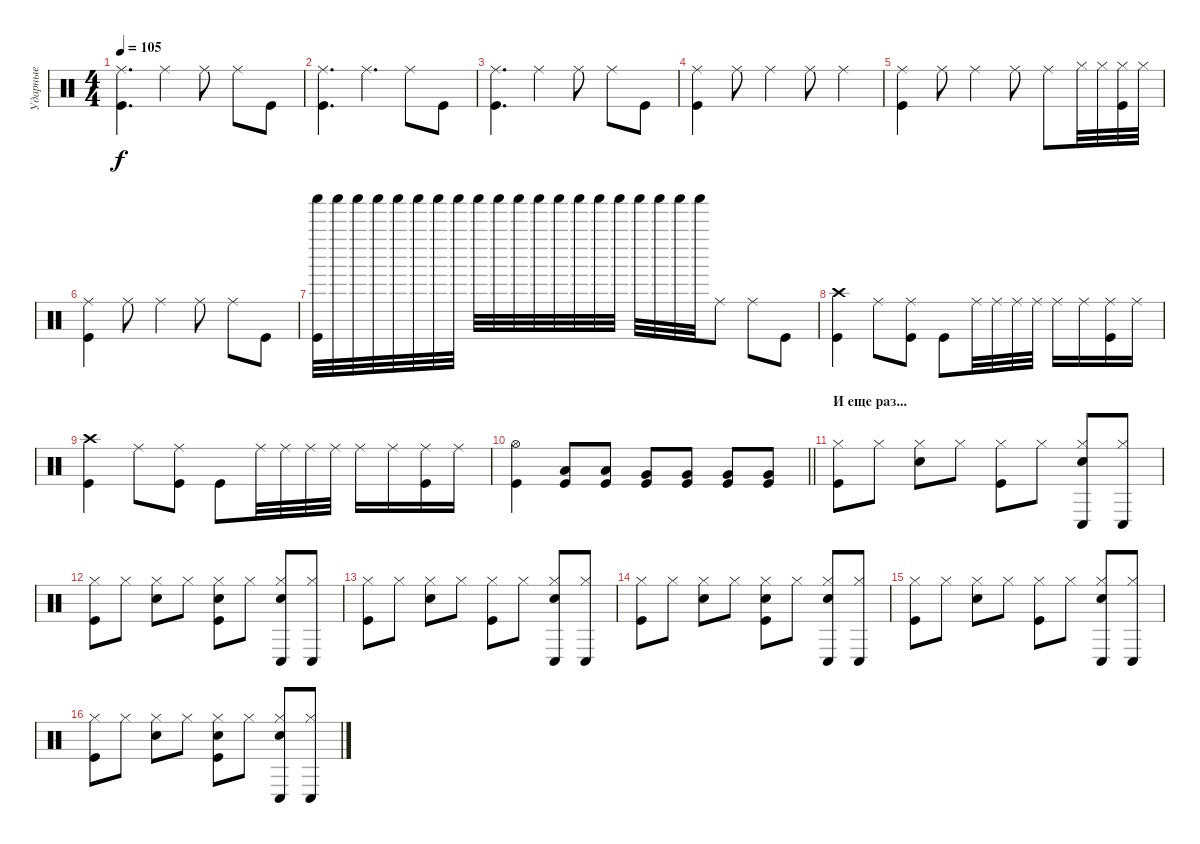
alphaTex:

\track ("Ударные" "Ударные") {instrument percussion}
\staff {score}
\articulation defaults
\ts (4 4)
\tempo 105
\clef neutral
\ks c
("Ride (middle)" "Kick (hit)").4{d dy f} "Ride (middle)".4 "Ride (middle)".8 "Ride (middle)".8 "Kick (hit)".8 |
("Ride (middle)" "Kick (hit)").4{d} "Ride (middle)".4{d} "Ride (middle)".8 "Kick (hit)".8 |
("Ride (middle)" "Kick (hit)").4{d} "Ride (middle)".4 "Ride (middle)".8 "Ride (middle)".8 "Kick (hit)".8 |
("Ride (middle)" "Kick (hit)").4 "Ride (middle)".8 "Ride (middle)".4 "Ride (middle)".8 "Ride (middle)".4 |
("Ride (middle)" "Kick (hit)").4 "Ride (middle)".8 "Ride (middle)".4 "Ride (middle)".8 "Ride (middle)".8 "Hi-Hat (closed)".32 "Hi-Hat (closed)".32 ("Hi-Hat (closed)" "Kick (hit)").32 "Hi-Hat (closed)".32 |
("Ride (middle)" "Kick (hit)").4 "Ride (middle)".8 "Ride (middle)".4 "Ride (middle)".8 "Ride (middle)".8 "Kick (hit)".8 |
("Kick (hit)" "Shaker (hit)").32 "Shaker (hit)".32 "Shaker (hit)".32 "Shaker (hit)".32 "Shaker (hit)".32 "Shaker (hit)".32 "Shaker (hit)".32 "Shaker (hit)".32 "Shaker (hit)".32 "Shaker (hit)".32 "Shaker (hit)".32 "Shaker (hit)".32 "Shaker (hit)".32 "Shaker (hit)".32 "Shaker (hit)".32 "Shaker (hit)".32 "Shaker (hit)".32 "Shaker (hit)".32 "Shaker (hit)".32 "Shaker (hit)".32 "Ride (middle)".8 "Ride (middle)".8 "Kick (hit)".8 |
("Crash high (hit)" "Kick (hit)").4 "Ride (middle)".8 ("Ride (middle)" "Kick (hit)").8 "Kick (hit)".8 "Ride (middle)".32 "Ride (middle)".32 "Ride (middle)".32 "Ride (middle)".32 "Ride (middle)".16 "Ride (middle)".16 ("Ride (middle)" "Kick (hit)").16 "Ride (middle)".16 |
("Crash high (hit)" "Kick (hit)").4 "Ride (middle)".8 ("Ride (middle)" "Kick (hit)").8 "Kick (hit)".8 "Ride (middle)".32 "Ride (middle)".32 "Ride (middle)".32 "Ride (middle)".32 "Ride (middle)".16 "Ride (middle)".16 ("Ride (middle)" "Kick (hit)").16 "Ride (middle)".16 |
\barLineRight lightlight
("Hi-Hat (open)" "Kick (hit)").4 ("Kick (hit)" "Low Tom (hit)").8 ("Kick (hit)" "Low Tom (hit)").8 ("Kick (hit)" "Very Low Tom (hit)").8 ("Kick (hit)" "Very Low Tom (hit)").8 ("Kick (hit)" "Very Low Tom (hit)").8 ("Very Low Tom (hit)" "Kick (hit)").8 |
\section ("" "И еще раз...")
("Kick (hit)" "Hi-Hat (closed)").8 "Hi-Hat (closed)".8 ("Snare (hit) 2" "Hi-Hat (closed)").8 "Hi-Hat (closed)".8 ("Hi-Hat (closed)" "Kick (hit)").8 "Hi-Hat (closed)".8 ("Hi-Hat (closed)" "Conga low (hit)" "Snare (hit) 2").8 ("Hi-Hat (closed)" "Conga low (hit)").8 |
("Kick (hit)" "Hi-Hat (closed)").8 "Hi-Hat (closed)".8 ("Snare (hit) 2" "Hi-Hat (closed)").8 "Hi-Hat (closed)".8 ("Hi-Hat (closed)" "Kick (hit)" "Snare (hit) 2").8 "Hi-Hat (closed)".8 ("Hi-Hat (closed)" "Conga low (hit)" "Snare (hit) 2").8 ("Hi-Hat (closed)" "Conga low (hit)").8 |
("Kick (hit)" "Hi-Hat (closed)").8 "Hi-Hat (closed)".8 ("Snare (hit) 2" "Hi-Hat (closed)").8 "Hi-Hat (closed)".8 ("Hi-Hat (closed)" "Kick (hit)").8 "Hi-Hat (closed)".8 ("Hi-Hat (closed)" "Conga low (hit)" "Snare (hit) 2").8 ("Hi-Hat (closed)" "Conga low (hit)").8 |
("Kick (hit)" "Hi-Hat (closed)").8 "Hi-Hat (closed)".8 ("Snare (hit) 2" "Hi-Hat (closed)").8 "Hi-Hat (closed)".8 ("Hi-Hat (closed)" "Kick (hit)" "Snare (hit) 2").8 "Hi-Hat (closed)".8 ("Hi-Hat (closed)" "Conga low (hit)" "Snare (hit) 2").8 ("Hi-Hat (closed)" "Conga low (hit)").8 |
("Kick (hit)" "Hi-Hat (closed)").8 "Hi-Hat (closed)".8 ("Snare (hit) 2" "Hi-Hat (closed)").8 "Hi-Hat (closed)".8 ("Hi-Hat (closed)" "Kick (hit)").8 "Hi-Hat (closed)".8 ("Hi-Hat (closed)" "Conga low (hit)" "Snare (hit) 2").8 ("Hi-Hat (closed)" "Conga low (hit)").8 |
("Kick (hit)" "Hi-Hat (closed)").8 "Hi-Hat (closed)".8 ("Snare (hit) 2" "Hi-Hat (closed)").8 "Hi-Hat (closed)".8 ("Hi-Hat (closed)" "Kick (hit)" "Snare (hit) 2").8 "Hi-Hat (closed)".8 ("Hi-Hat (closed)" "Conga low (hit)" "Snare (hit) 2").8 ("Hi-Hat (closed)" "Conga low (hit)").8
